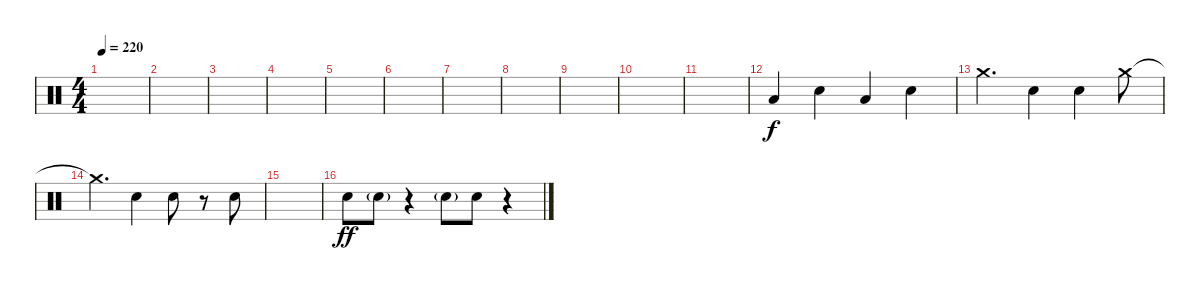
\track "" {instrument percussion}
\staff {score}
\articulation defaults
\ts (4 4)
\tempo 220
\clef neutral
\ks c
|
|
|
|
|
|
|
|
|
|
|
"Low Tom (hit)".4{dy f} "Snare (hit) 2".4 "Low Tom (hit)".4 "Snare (hit) 2".4 |
"Crash medium (hit)".4{d} "Snare (hit) 2".4 "Snare (hit) 2".4 "Crash medium (hit)".8 |
"Crash medium (hit)"{t}.4{d} "Snare (hit) 2".4 "Snare (hit) 2".8 r.8 "Snare (hit) 2".8 |
|
"Snare (hit) 2".8{dy ff} "Snare (hit) 2"{g}.8 r.4 "Snare (hit) 2"{g}.8 "Snare (hit) 2".8 r.4
